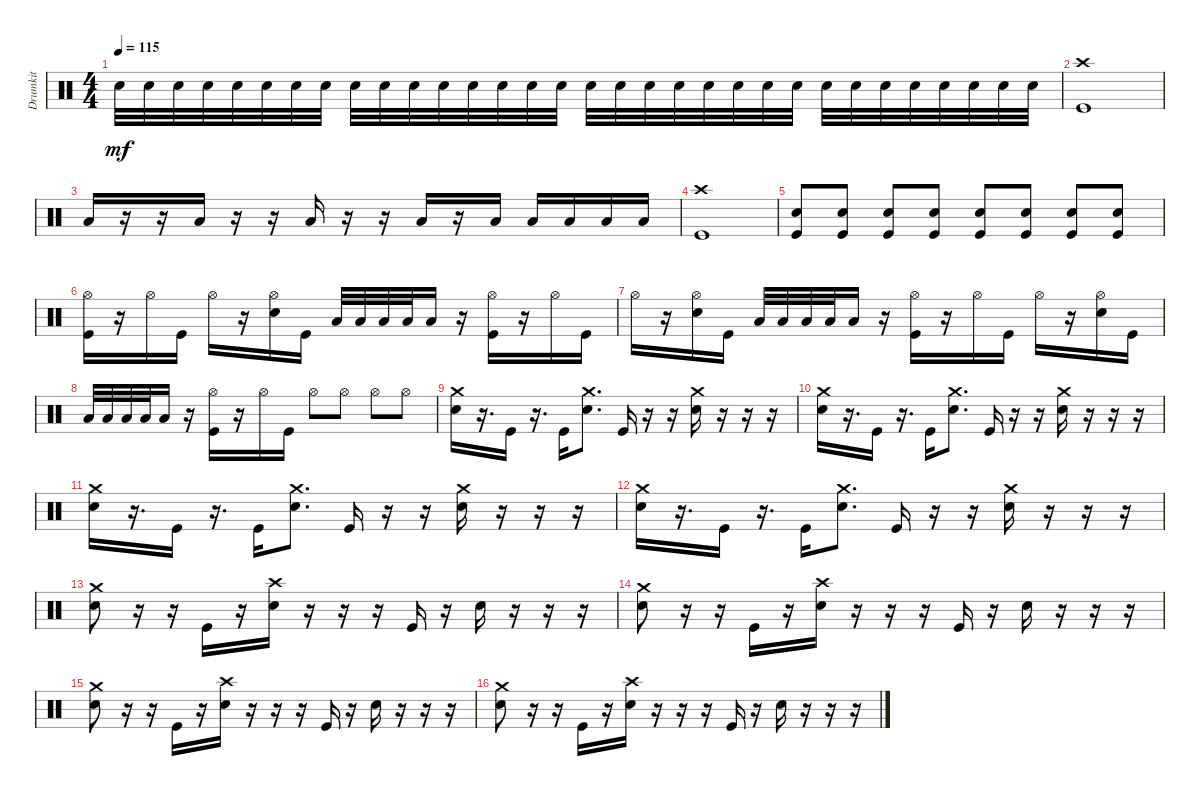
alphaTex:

\track ("Drumkit" "Drumkit") {instrument percussion}
\staff {score}
\articulation defaults
\ts (4 4)
\tempo 115
\clef neutral
\ks c "Snare (hit) 2".32{dy mf} "Snare (hit) 2".32 "Snare (hit) 2".32 "Snare (hit) 2".32 "Snare (hit) 2".32 "Snare (hit) 2".32 "Snare (hit) 2".32 "Snare (hit) 2".32 "Snare (hit) 2".32 "Snare (hit) 2".32 "Snare (hit) 2".32 "Snare (hit) 2".32 "Snare (hit) 2".32 "Snare (hit) 2".32 "Snare (hit) 2".32 "Snare (hit) 2".32 "Snare (hit) 2".32 "Snare (hit) 2".32 "Snare (hit) 2".32 "Snare (hit) 2".32 "Snare (hit) 2".32 "Snare (hit) 2".32 "Snare (hit) 2".32 "Snare (hit) 2".32 "Snare (hit) 2".32 "Snare (hit) 2".32 "Snare (hit) 2".32 "Snare (hit) 2".32 "Snare (hit) 2".32 "Snare (hit) 2".32 "Snare (hit) 2".32 "Snare (hit) 2".32
|
("Kick (hit)" "Crash high (hit)").1 |
"Low Tom (hit)".16 r.16 r.16 "Low Tom (hit)".16 r.16 r.16 "Low Tom (hit)".16 r.16 r.16 "Low Tom (hit)".16 r.16 "Low Tom (hit)".16 "Low Tom (hit)".16 "Low Tom (hit)".16 "Low Tom (hit)".16 "Low Tom (hit)".16 |
("Kick (hit)" "Crash high (hit)").1 |
("Snare (hit) 2" "Kick (hit)").8 ("Snare (hit) 2" "Kick (hit)").8 ("Snare (hit) 2" "Kick (hit)").8 ("Snare (hit) 2" "Kick (hit)").8 ("Snare (hit) 2" "Kick (hit)").8 ("Snare (hit) 2" "Kick (hit)").8 ("Snare (hit) 2" "Kick (hit)").8 ("Snare (hit) 2" "Kick (hit)").8 |
("Kick (hit)" "Hi-Hat (open)").16 r.16 "Hi-Hat (open)".16 "Kick (hit)".16 "Hi-Hat (open)".16 r.16 ("Hi-Hat (open)" "Snare (hit) 2").16 "Kick (hit)".16 "Low Tom (hit)".32 "Low Tom (hit)".32 "Low Tom (hit)".32 "Low Tom (hit)".32 "Low Tom (hit)".16 r.16 ("Kick (hit)" "Hi-Hat (open)").16 r.16 "Hi-Hat (open)".16 "Kick (hit)".16 |
"Hi-Hat (open)".16 r.16 ("Hi-Hat (open)" "Snare (hit) 2").16 "Kick (hit)".16 "Low Tom (hit)".32 "Low Tom (hit)".32 "Low Tom (hit)".32 "Low Tom (hit)".32 "Low Tom (hit)".16 r.16 ("Kick (hit)" "Hi-Hat (open)").16 r.16 "Hi-Hat (open)".16 "Kick (hit)".16 "Hi-Hat (open)".16 r.16 ("Hi-Hat (open)" "Snare (hit) 2").16 "Kick (hit)".16 |
"Low Tom (hit)".32 "Low Tom (hit)".32 "Low Tom (hit)".32 "Low Tom (hit)".32 "Low Tom (hit)".16 r.16 ("Kick (hit)" "Hi-Hat (open)").16 r.16 "Hi-Hat (open)".16 "Kick (hit)".16 "Hi-Hat (open)".8 "Hi-Hat (open)".8 "Hi-Hat (open)".8 "Hi-Hat (open)".8 |
("Snare (hit) 2" "Crash medium (hit)").16 r.16{d} "Kick (hit)".16 r.16{d} "Kick (hit)".16 ("Snare (hit) 2" "Crash medium (hit)").8{d} "Kick (hit)".16 r.16 r.16 ("Snare (hit) 2" "Crash medium (hit)").16 r.16 r.16 r.16 |
("Snare (hit) 2" "Crash medium (hit)").16 r.16{d} "Kick (hit)".16 r.16{d} "Kick (hit)".16 ("Snare (hit) 2" "Crash medium (hit)").8{d} "Kick (hit)".16 r.16 r.16 ("Snare (hit) 2" "Crash medium (hit)").16 r.16 r.16 r.16 |
("Snare (hit) 2" "Crash medium (hit)").16 r.16{d} "Kick (hit)".16 r.16{d} "Kick (hit)".16 ("Snare (hit) 2" "Crash medium (hit)").8{d} "Kick (hit)".16 r.16 r.16 ("Snare (hit) 2" "Crash medium (hit)").16 r.16 r.16 r.16 |
("Snare (hit) 2" "Crash medium (hit)").16 r.16{d} "Kick (hit)".16 r.16{d} "Kick (hit)".16 ("Snare (hit) 2" "Crash medium (hit)").8{d} "Kick (hit)".16 r.16 r.16 ("Snare (hit) 2" "Crash medium (hit)").16 r.16 r.16 r.16 |
("Snare (hit) 2" "Crash medium (hit)").8 r.16 r.16 "Kick (hit)".16 r.16 ("Snare (hit) 2" "Crash high (hit)").16 r.16 r.16 r.16 "Kick (hit)".16 r.16 "Snare (hit) 2".16 r.16 r.16 r.16 |
("Snare (hit) 2" "Crash medium (hit)").8 r.16 r.16 "Kick (hit)".16 r.16 ("Snare (hit) 2" "Crash high (hit)").16 r.16 r.16 r.16 "Kick (hit)".16 r.16 "Snare (hit) 2".16 r.16 r.16 r.16 |
("Snare (hit) 2" "Crash medium (hit)").8 r.16 r.16 "Kick (hit)".16 r.16 ("Snare (hit) 2" "Crash high (hit)").16 r.16 r.16 r.16 "Kick (hit)".16 r.16 "Snare (hit) 2".16 r.16 r.16 r.16 |
("Snare (hit) 2" "Crash medium (hit)").8 r.16 r.16 "Kick (hit)".16 r.16 ("Snare (hit) 2" "Crash high (hit)").16 r.16 r.16 r.16 "Kick (hit)".16 r.16 "Snare (hit) 2".16 r.16 r.16 r.16
